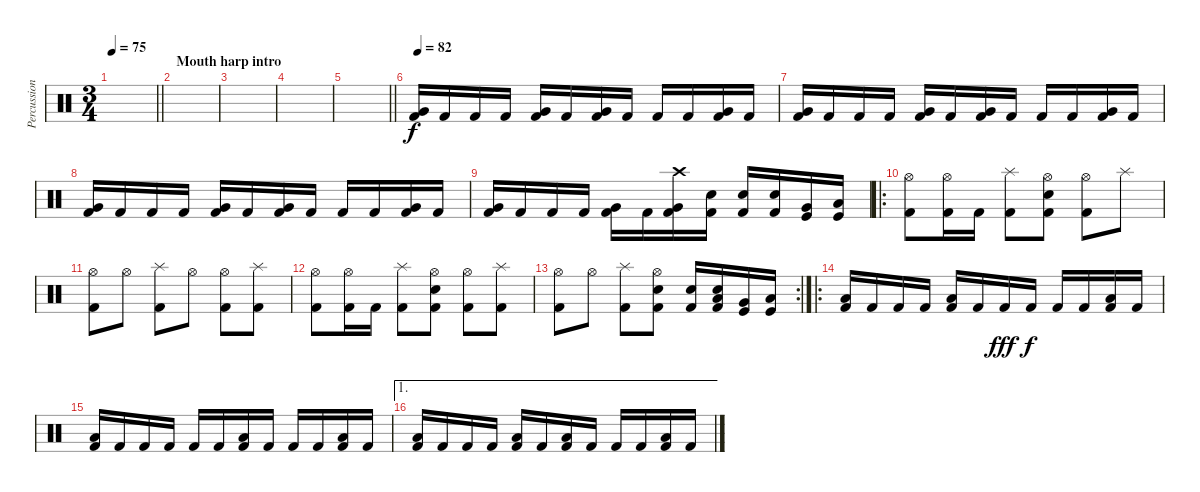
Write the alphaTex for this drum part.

\track ("Percussion" "Percussion") {instrument percussion}
\staff {score}
\articulation defaults
\ts (3 4)
\tempo 75
\clef neutral
\barLineRight lightlight
\ks c
|
\section ("" "Mouth harp intro")
|
|
|
\barLineRight lightlight
|
\tempo 82
("Very Low Tom (hit)" "Kick (hit) 2").16 "Kick (hit) 2".16 "Kick (hit) 2".16 "Kick (hit) 2".16 ("Very Low Tom (hit)" "Kick (hit) 2").16 "Kick (hit) 2".16 ("Very Low Tom (hit)" "Kick (hit) 2").16 "Kick (hit) 2".16 "Kick (hit) 2".16 "Kick (hit) 2".16 ("Very Low Tom (hit)" "Kick (hit) 2").16 "Kick (hit) 2".16 |
("Very Low Tom (hit)" "Kick (hit) 2").16 "Kick (hit) 2".16 "Kick (hit) 2".16 "Kick (hit) 2".16 ("Very Low Tom (hit)" "Kick (hit) 2").16 "Kick (hit) 2".16 ("Very Low Tom (hit)" "Kick (hit) 2").16 "Kick (hit) 2".16 "Kick (hit) 2".16 "Kick (hit) 2".16 ("Very Low Tom (hit)" "Kick (hit) 2").16 "Kick (hit) 2".16 |
("Very Low Tom (hit)" "Kick (hit) 2").16 "Kick (hit) 2".16 "Kick (hit) 2".16 "Kick (hit) 2".16 ("Very Low Tom (hit)" "Kick (hit) 2").16 "Kick (hit) 2".16 ("Very Low Tom (hit)" "Kick (hit) 2").16 "Kick (hit) 2".16 "Kick (hit) 2".16 "Kick (hit) 2".16 ("Very Low Tom (hit)" "Kick (hit) 2").16 "Kick (hit) 2".16 |
("Very Low Tom (hit)" "Kick (hit) 2").16 "Kick (hit) 2".16 "Kick (hit) 2".16 "Kick (hit) 2".16 ("Very Low Tom (hit)" "Kick (hit) 2").16 "Kick (hit) 2".16 ("Crash high (hit)" "Very Low Tom (hit)" "Kick (hit) 2").16 ("Electric Snare (hit)" "Kick (hit) 2").16 ("Electric Snare (hit)" "Kick (hit) 2").16 ("Electric Snare (hit)" "Kick (hit) 2").16 ("Very Low Tom (hit)" "Kick (hit)").16 ("Low Floor Tom (hit)" "Kick (hit)").16 |
\ro
("Hi-Hat (open)" "Kick (hit) 2").8 ("Hi-Hat (open)" "Kick (hit) 2").16 "Kick (hit) 2".16 ("Splash (hit)" "Kick (hit) 2").8 ("Hi-Hat (open)" "Electric Snare (hit)" "Kick (hit) 2").8 ("Hi-Hat (open)" "Kick (hit) 2").8 "Splash (hit)".8 |
("Hi-Hat (open)" "Kick (hit) 2").8 "Hi-Hat (open)".8 ("Splash (hit)" "Kick (hit) 2").8 "Hi-Hat (open)".8 ("Hi-Hat (open)" "Kick (hit) 2").8 ("Splash (hit)" "Kick (hit) 2").8 |
("Hi-Hat (open)" "Kick (hit) 2").8 ("Hi-Hat (open)" "Kick (hit) 2").16 "Kick (hit) 2".16 ("Splash (hit)" "Kick (hit) 2").8 ("Hi-Hat (open)" "Electric Snare (hit)" "Kick (hit) 2").8 ("Hi-Hat (open)" "Kick (hit) 2").8 ("Splash (hit)" "Kick (hit) 2").8 |
\rc 2
("Hi-Hat (open)" "Kick (hit) 2").8 "Hi-Hat (open)".8 ("Splash (hit)" "Kick (hit) 2").8 ("Hi-Hat (open)" "Electric Snare (hit)" "Kick (hit) 2").8 ("Electric Snare (hit)" "Kick (hit) 2").16 ("Electric Snare (hit)" "Low Tom (hit)" "Kick (hit) 2").16 ("Very Low Tom (hit)" "Kick (hit)").16 ("Low Floor Tom (hit)" "Kick (hit)").16 |
\ro
("Low Floor Tom (hit)" "Kick (hit) 2").16 "Kick (hit) 2".16 "Kick (hit) 2".16 "Kick (hit) 2".16 ("Low Floor Tom (hit)" "Kick (hit) 2").16 "Kick (hit) 2".16 "Kick (hit) 2".16{dy fff} "Kick (hit) 2".16{dy f} "Kick (hit) 2".16 "Kick (hit) 2".16 ("Low Floor Tom (hit)" "Kick (hit) 2").16 "Kick (hit) 2".16 |
("Low Floor Tom (hit)" "Kick (hit) 2").16 "Kick (hit) 2".16 "Kick (hit) 2".16 "Kick (hit) 2".16 "Kick (hit) 2".16 "Kick (hit) 2".16 ("Low Floor Tom (hit)" "Kick (hit) 2").16 "Kick (hit) 2".16 "Kick (hit) 2".16 "Kick (hit) 2".16 ("Low Floor Tom (hit)" "Kick (hit) 2").16 "Kick (hit) 2".16 |
\ae 1
("Low Floor Tom (hit)" "Kick (hit) 2").16 "Kick (hit) 2".16 "Kick (hit) 2".16 "Kick (hit) 2".16 ("Low Floor Tom (hit)" "Kick (hit) 2").16 "Kick (hit) 2".16 ("Low Floor Tom (hit)" "Kick (hit) 2").16 "Kick (hit) 2".16 "Kick (hit) 2".16 "Kick (hit) 2".16 ("Low Floor Tom (hit)" "Kick (hit) 2").16 "Kick (hit) 2".16
